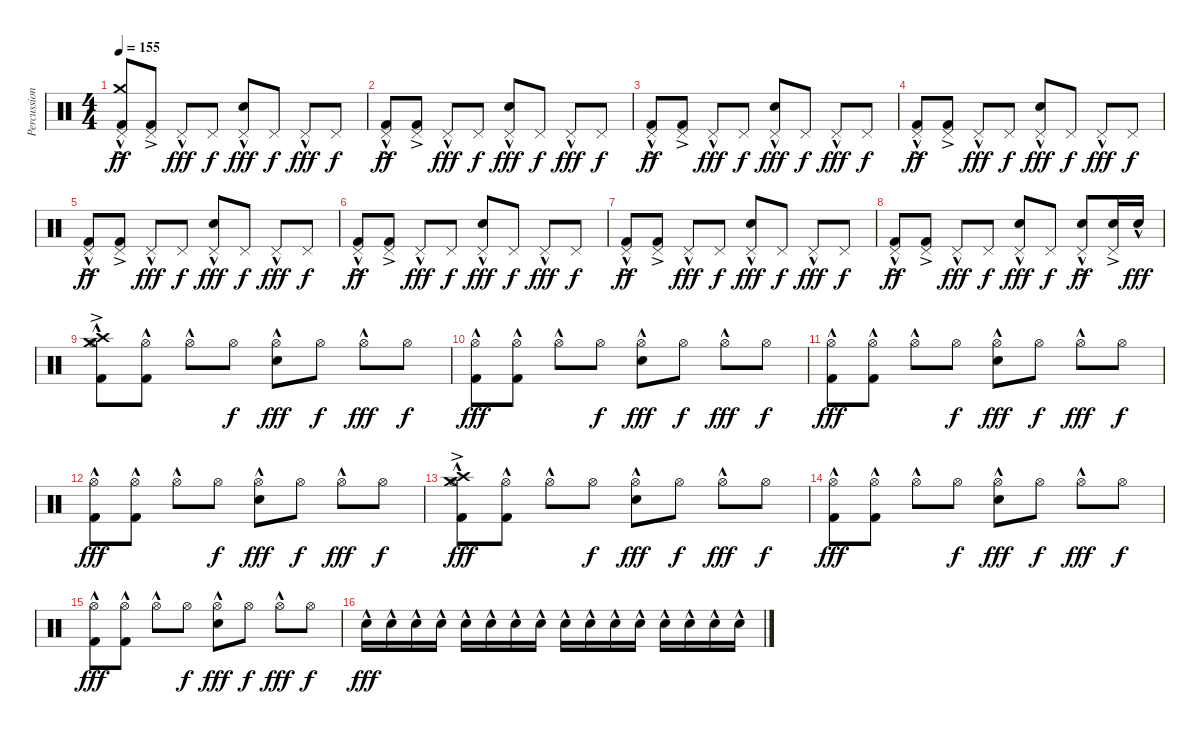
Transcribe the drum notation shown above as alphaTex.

\track ("Percussion" "Percussion") {instrument percussion}
\staff {score}
\articulation defaults
\ts (4 4)
\tempo 155
\clef neutral
\ks c
("Pedal Hi-Hat (hit)"{hac} "Crash medium (hit)" "Kick (hit) 2"{ac}).8{dy ff} ("Pedal Hi-Hat (hit)" "Kick (hit) 2"{ac}).8 "Pedal Hi-Hat (hit)"{hac}.8{dy fff} "Pedal Hi-Hat (hit)".8{dy f} ("Pedal Hi-Hat (hit)"{hac} "Electric Snare (hit)"{hac}).8{dy fff} "Pedal Hi-Hat (hit)".8{dy f} "Pedal Hi-Hat (hit)"{hac}.8{dy fff} "Pedal Hi-Hat (hit)".8{dy f} |
("Pedal Hi-Hat (hit)"{hac} "Kick (hit) 2"{ac}).8{dy ff} ("Pedal Hi-Hat (hit)" "Kick (hit) 2"{ac}).8 "Pedal Hi-Hat (hit)"{hac}.8{dy fff} "Pedal Hi-Hat (hit)".8{dy f} ("Pedal Hi-Hat (hit)"{hac} "Electric Snare (hit)"{hac}).8{dy fff} "Pedal Hi-Hat (hit)".8{dy f} "Pedal Hi-Hat (hit)"{hac}.8{dy fff} "Pedal Hi-Hat (hit)".8{dy f} |
("Pedal Hi-Hat (hit)"{hac} "Kick (hit) 2"{ac}).8{dy ff} ("Pedal Hi-Hat (hit)" "Kick (hit) 2"{ac}).8 "Pedal Hi-Hat (hit)"{hac}.8{dy fff} "Pedal Hi-Hat (hit)".8{dy f} ("Pedal Hi-Hat (hit)"{hac} "Electric Snare (hit)"{hac}).8{dy fff} "Pedal Hi-Hat (hit)".8{dy f} "Pedal Hi-Hat (hit)"{hac}.8{dy fff} "Pedal Hi-Hat (hit)".8{dy f} |
("Pedal Hi-Hat (hit)"{hac} "Kick (hit) 2"{ac}).8{dy ff} ("Pedal Hi-Hat (hit)" "Kick (hit) 2"{ac}).8 "Pedal Hi-Hat (hit)"{hac}.8{dy fff} "Pedal Hi-Hat (hit)".8{dy f} ("Pedal Hi-Hat (hit)"{hac} "Electric Snare (hit)"{hac}).8{dy fff} "Pedal Hi-Hat (hit)".8{dy f} "Pedal Hi-Hat (hit)"{hac}.8{dy fff} "Pedal Hi-Hat (hit)".8{dy f} |
("Pedal Hi-Hat (hit)"{hac} "Kick (hit) 2"{ac}).8{dy ff} ("Pedal Hi-Hat (hit)" "Kick (hit) 2"{ac}).8 "Pedal Hi-Hat (hit)"{hac}.8{dy fff} "Pedal Hi-Hat (hit)".8{dy f} ("Pedal Hi-Hat (hit)"{hac} "Electric Snare (hit)"{hac}).8{dy fff} "Pedal Hi-Hat (hit)".8{dy f} "Pedal Hi-Hat (hit)"{hac}.8{dy fff} "Pedal Hi-Hat (hit)".8{dy f} |
("Pedal Hi-Hat (hit)"{hac} "Kick (hit) 2"{ac}).8{dy ff} ("Pedal Hi-Hat (hit)" "Kick (hit) 2"{ac}).8 "Pedal Hi-Hat (hit)"{hac}.8{dy fff} "Pedal Hi-Hat (hit)".8{dy f} ("Pedal Hi-Hat (hit)"{hac} "Electric Snare (hit)"{hac}).8{dy fff} "Pedal Hi-Hat (hit)".8{dy f} "Pedal Hi-Hat (hit)"{hac}.8{dy fff} "Pedal Hi-Hat (hit)".8{dy f} |
("Pedal Hi-Hat (hit)"{hac} "Kick (hit) 2"{ac}).8{dy ff} ("Pedal Hi-Hat (hit)" "Kick (hit) 2"{ac}).8 "Pedal Hi-Hat (hit)"{hac}.8{dy fff} "Pedal Hi-Hat (hit)".8{dy f} ("Pedal Hi-Hat (hit)"{hac} "Electric Snare (hit)"{hac}).8{dy fff} "Pedal Hi-Hat (hit)".8{dy f} "Pedal Hi-Hat (hit)"{hac}.8{dy fff} "Pedal Hi-Hat (hit)".8{dy f} |
("Pedal Hi-Hat (hit)"{hac} "Kick (hit) 2"{ac}).8{dy ff} ("Pedal Hi-Hat (hit)" "Kick (hit) 2"{ac}).8 "Pedal Hi-Hat (hit)"{hac}.8{dy fff} "Pedal Hi-Hat (hit)".8{dy f} ("Pedal Hi-Hat (hit)"{hac} "Electric Snare (hit)"{hac}).8{dy fff} "Pedal Hi-Hat (hit)".8{dy f} ("Pedal Hi-Hat (hit)"{hac} "Electric Snare (hit)"{ac}).8{dy ff} ("Pedal Hi-Hat (hit)" "Electric Snare (hit)"{ac}).16 "Electric Snare (hit)"{hac}.16{dy fff} |
("Hi-Hat (open)"{hac} "Crash medium (hit)"{hac} "Crash high (hit)"{ac} "Kick (hit) 2"{hac}).8 ("Hi-Hat (open)" "Kick (hit) 2"{hac}).8 "Hi-Hat (open)"{hac}.8 "Hi-Hat (open)".8{dy f} ("Hi-Hat (open)"{hac} "Electric Snare (hit)"{hac}).8{dy fff} "Hi-Hat (open)".8{dy f} "Hi-Hat (open)"{hac}.8{dy fff} "Hi-Hat (open)".8{dy f} |
("Hi-Hat (open)"{hac} "Kick (hit) 2"{hac}).8{dy fff} ("Hi-Hat (open)" "Kick (hit) 2"{hac}).8 "Hi-Hat (open)"{hac}.8 "Hi-Hat (open)".8{dy f} ("Hi-Hat (open)"{hac} "Electric Snare (hit)"{hac}).8{dy fff} "Hi-Hat (open)".8{dy f} "Hi-Hat (open)"{hac}.8{dy fff} "Hi-Hat (open)".8{dy f} |
("Hi-Hat (open)"{hac} "Kick (hit) 2"{hac}).8{dy fff} ("Hi-Hat (open)" "Kick (hit) 2"{hac}).8 "Hi-Hat (open)"{hac}.8 "Hi-Hat (open)".8{dy f} ("Hi-Hat (open)"{hac} "Electric Snare (hit)"{hac}).8{dy fff} "Hi-Hat (open)".8{dy f} "Hi-Hat (open)"{hac}.8{dy fff} "Hi-Hat (open)".8{dy f} |
("Hi-Hat (open)"{hac} "Kick (hit) 2"{hac}).8{dy fff} ("Hi-Hat (open)" "Kick (hit) 2"{hac}).8 "Hi-Hat (open)"{hac}.8 "Hi-Hat (open)".8{dy f} ("Hi-Hat (open)"{hac} "Electric Snare (hit)"{hac}).8{dy fff} "Hi-Hat (open)".8{dy f} "Hi-Hat (open)"{hac}.8{dy fff} "Hi-Hat (open)".8{dy f} |
("Hi-Hat (open)"{hac} "Crash medium (hit)"{hac} "Crash high (hit)"{ac} "Kick (hit) 2"{hac}).8{dy fff} ("Hi-Hat (open)" "Kick (hit) 2"{hac}).8 "Hi-Hat (open)"{hac}.8 "Hi-Hat (open)".8{dy f} ("Hi-Hat (open)"{hac} "Electric Snare (hit)"{hac}).8{dy fff} "Hi-Hat (open)".8{dy f} "Hi-Hat (open)"{hac}.8{dy fff} "Hi-Hat (open)".8{dy f} |
("Hi-Hat (open)"{hac} "Kick (hit) 2"{hac}).8{dy fff} ("Hi-Hat (open)" "Kick (hit) 2"{hac}).8 "Hi-Hat (open)"{hac}.8 "Hi-Hat (open)".8{dy f} ("Hi-Hat (open)"{hac} "Electric Snare (hit)"{hac}).8{dy fff} "Hi-Hat (open)".8{dy f} "Hi-Hat (open)"{hac}.8{dy fff} "Hi-Hat (open)".8{dy f} |
("Hi-Hat (open)"{hac} "Kick (hit) 2"{hac}).8{dy fff} ("Hi-Hat (open)" "Kick (hit) 2"{hac}).8 "Hi-Hat (open)"{hac}.8 "Hi-Hat (open)".8{dy f} ("Hi-Hat (open)"{hac} "Electric Snare (hit)"{hac}).8{dy fff} "Hi-Hat (open)".8{dy f} "Hi-Hat (open)"{hac}.8{dy fff} "Hi-Hat (open)".8{dy f} |
"Electric Snare (hit)"{hac}.16{dy fff} "Electric Snare (hit)"{hac}.16 "Electric Snare (hit)"{hac}.16 "Electric Snare (hit)"{hac}.16 "Electric Snare (hit)"{hac}.16 "Electric Snare (hit)"{hac}.16 "Electric Snare (hit)"{hac}.16 "Electric Snare (hit)"{hac}.16 "Electric Snare (hit)"{hac}.16 "Electric Snare (hit)"{hac}.16 "Electric Snare (hit)"{hac}.16 "Electric Snare (hit)"{hac}.16 "Electric Snare (hit)"{hac}.16 "Electric Snare (hit)"{hac}.16 "Electric Snare (hit)"{hac}.16 "Electric Snare (hit)"{hac}.16
